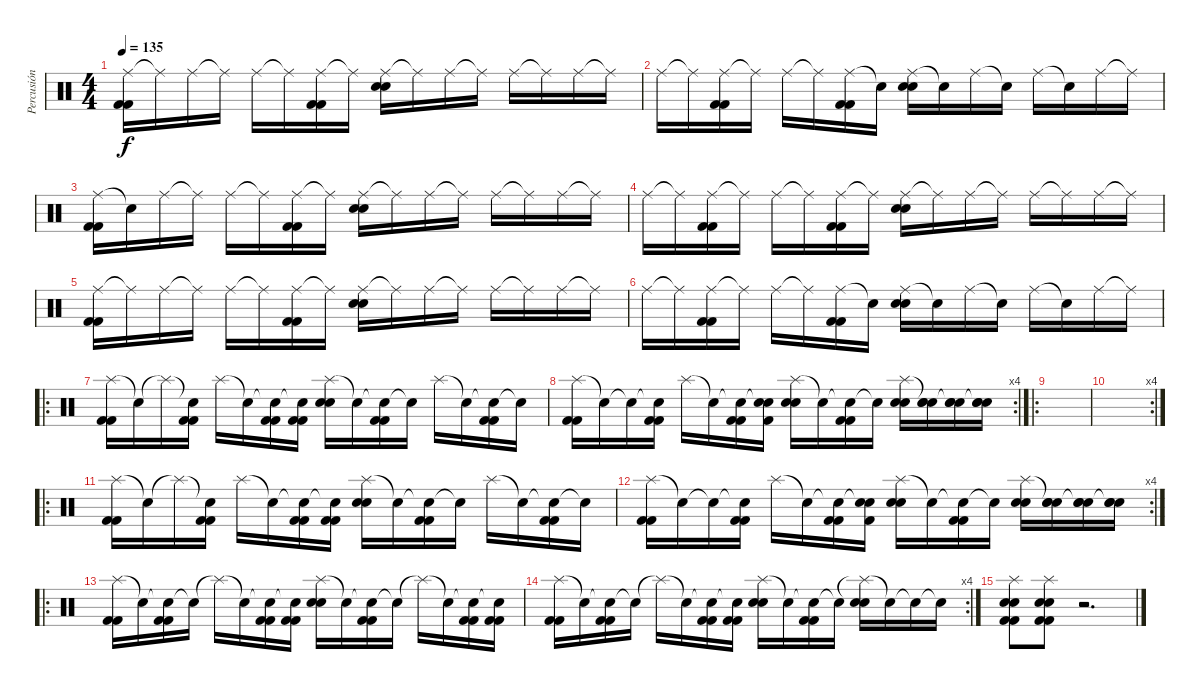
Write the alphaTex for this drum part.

\track ("Percusión" "Percusión") {instrument percussion}
\staff {score}
\articulation defaults
\ts (4 4)
\tempo 135
\clef neutral
\ks c
("Ride (middle)" "Kick (hit) 2" "Kick (hit) 2").16{dy f} "Ride (middle)"{t}.16 "Ride (middle)".16 "Ride (middle)"{t}.16 "Ride (middle)".16 "Ride (middle)"{t}.16 ("Ride (middle)" "Kick (hit) 2" "Kick (hit) 2").16 "Ride (middle)"{t}.16 ("Ride (middle)" "Electric Snare (hit)" "Electric Snare (hit)").16 "Ride (middle)"{t}.16 "Ride (middle)".16 "Ride (middle)"{t}.16 "Ride (middle)".16 "Ride (middle)"{t}.16 "Ride (middle)".16 "Ride (middle)"{t}.16 |
"Ride (middle)".16 "Ride (middle)"{t}.16 ("Ride (middle)" "Kick (hit) 2" "Kick (hit) 2").16 "Ride (middle)"{t}.16 "Ride (middle)".16 "Ride (middle)"{t}.16 ("Ride (middle)" "Kick (hit) 2" "Kick (hit) 2").16 "Snare (hit)"{t}.16 ("Ride (middle)" "Electric Snare (hit)" "Electric Snare (hit)").16 "Snare (hit)"{t}.16 "Ride (middle)".16 "Snare (hit)"{t}.16 "Ride (middle)".16 "Snare (hit)"{t}.16 "Ride (middle)".16 "Ride (middle)"{t}.16 |
("Ride (middle)" "Kick (hit) 2" "Kick (hit) 2").16 "Snare (hit)"{t}.16 "Ride (middle)".16 "Ride (middle)"{t}.16 "Ride (middle)".16 "Ride (middle)"{t}.16 ("Ride (middle)" "Kick (hit) 2" "Kick (hit) 2").16 "Ride (middle)"{t}.16 ("Ride (middle)" "Electric Snare (hit)" "Electric Snare (hit)").16 "Ride (middle)"{t}.16 "Ride (middle)".16 "Ride (middle)"{t}.16 "Ride (middle)".16 "Ride (middle)"{t}.16 "Ride (middle)".16 "Ride (middle)"{t}.16 |
"Ride (middle)".16 "Ride (middle)"{t}.16 ("Ride (middle)" "Kick (hit) 2" "Kick (hit) 2").16 "Ride (middle)"{t}.16 "Ride (middle)".16 "Ride (middle)"{t}.16 ("Ride (middle)" "Kick (hit) 2" "Kick (hit) 2").16 "Ride (middle)"{t}.16 ("Ride (middle)" "Electric Snare (hit)" "Electric Snare (hit)").16 "Ride (middle)"{t}.16 "Ride (middle)".16 "Ride (middle)"{t}.16 "Ride (middle)".16 "Ride (middle)"{t}.16 "Ride (middle)".16 "Ride (middle)"{t}.16 |
("Ride (middle)" "Kick (hit) 2" "Kick (hit) 2").16 "Ride (middle)"{t}.16 "Ride (middle)".16 "Ride (middle)"{t}.16 "Ride (middle)".16 "Ride (middle)"{t}.16 ("Ride (middle)" "Kick (hit) 2" "Kick (hit) 2").16 "Ride (middle)"{t}.16 ("Ride (middle)" "Electric Snare (hit)" "Electric Snare (hit)").16 "Ride (middle)"{t}.16 "Ride (middle)".16 "Ride (middle)"{t}.16 "Ride (middle)".16 "Ride (middle)"{t}.16 "Ride (middle)".16 "Ride (middle)"{t}.16 |
"Ride (middle)".16 "Ride (middle)"{t}.16 ("Ride (middle)" "Kick (hit) 2" "Kick (hit) 2").16 "Ride (middle)"{t}.16 "Ride (middle)".16 "Ride (middle)"{t}.16 ("Ride (middle)" "Kick (hit) 2" "Kick (hit) 2").16 "Snare (hit)"{t}.16 ("Ride (middle)" "Electric Snare (hit)" "Electric Snare (hit)").16 "Snare (hit)"{t}.16 "Ride (middle)".16 "Snare (hit)"{t}.16 "Ride (middle)".16 "Snare (hit)"{t}.16 "Ride (middle)".16 "Ride (middle)"{t}.16 |
\ro
("Splash (hit)" "Kick (hit) 2" "Kick (hit) 2").16 "Snare (hit)"{t}.16 "Splash (hit)"{t}.16 ("Snare (hit)"{t} "Kick (hit) 2" "Kick (hit) 2").16 "Splash (hit)".16 "Snare (hit)"{t}.16 ("Snare (hit)"{t} "Kick (hit) 2" "Kick (hit) 2").16 ("Snare (hit)"{t} "Kick (hit) 2" "Kick (hit) 2").16 ("Splash (hit)" "Electric Snare (hit)" "Electric Snare (hit)").16 "Snare (hit)"{t}.16 ("Snare (hit)"{t} "Kick (hit) 2" "Kick (hit) 2").16 "Snare (hit)"{t}.16 "Splash (hit)".16 "Snare (hit)"{t}.16 ("Snare (hit)"{t} "Kick (hit) 2" "Kick (hit) 2").16 "Snare (hit)"{t}.16 |
\rc 4
("Splash (hit)" "Kick (hit) 2" "Kick (hit) 2").16 "Snare (hit)"{t}.16 "Snare (hit)"{t}.16 ("Snare (hit)"{t} "Kick (hit) 2" "Kick (hit) 2").16 "Splash (hit)".16 "Snare (hit)"{t}.16 ("Snare (hit)"{t} "Kick (hit) 2" "Kick (hit) 2").16 ("Snare (hit)"{t} "Snare (hit)" "Kick (hit) 2").16 ("Splash (hit)" "Electric Snare (hit)" "Electric Snare (hit)").16 "Snare (hit)"{t}.16 ("Snare (hit)"{t} "Kick (hit) 2" "Kick (hit) 2").16 "Snare (hit)"{t}.16 ("Splash (hit)" "Electric Snare (hit)" "Electric Snare (hit)").16 ("Snare (hit)"{t} "Electric Snare (hit)" "Electric Snare (hit)").16 ("Snare (hit)"{t} "Electric Snare (hit)" "Electric Snare (hit)").16 ("Snare (hit)"{t} "Electric Snare (hit)" "Electric Snare (hit)").16 |
\ro
|
\rc 4
|
\ro
("Splash (hit)" "Kick (hit) 2" "Kick (hit) 2").16 "Snare (hit)"{t}.16 "Splash (hit)"{t}.16 ("Snare (hit)"{t} "Kick (hit) 2" "Kick (hit) 2").16 "Splash (hit)".16 "Snare (hit)"{t}.16 ("Snare (hit)"{t} "Kick (hit) 2" "Kick (hit) 2").16 ("Snare (hit)"{t} "Kick (hit) 2" "Kick (hit) 2").16 ("Splash (hit)" "Electric Snare (hit)" "Electric Snare (hit)").16 "Snare (hit)"{t}.16 ("Snare (hit)"{t} "Kick (hit) 2" "Kick (hit) 2").16 "Snare (hit)"{t}.16 "Splash (hit)".16 "Snare (hit)"{t}.16 ("Snare (hit)"{t} "Kick (hit) 2" "Kick (hit) 2").16 "Snare (hit)"{t}.16 |
\rc 4
("Splash (hit)" "Kick (hit) 2" "Kick (hit) 2").16 "Snare (hit)"{t}.16 "Snare (hit)"{t}.16 ("Snare (hit)"{t} "Kick (hit) 2" "Kick (hit) 2").16 "Splash (hit)".16 "Snare (hit)"{t}.16 ("Snare (hit)"{t} "Kick (hit) 2" "Kick (hit) 2").16 ("Snare (hit)"{t} "Snare (hit)" "Kick (hit) 2").16 ("Splash (hit)" "Electric Snare (hit)" "Electric Snare (hit)").16 "Snare (hit)"{t}.16 ("Snare (hit)"{t} "Kick (hit) 2" "Kick (hit) 2").16 "Snare (hit)"{t}.16 ("Splash (hit)" "Electric Snare (hit)" "Electric Snare (hit)").16 ("Snare (hit)"{t} "Electric Snare (hit)" "Electric Snare (hit)").16 ("Snare (hit)"{t} "Electric Snare (hit)" "Electric Snare (hit)").16 ("Snare (hit)"{t} "Electric Snare (hit)" "Electric Snare (hit)").16 |
\ro
("Splash (hit)" "Kick (hit) 2" "Kick (hit) 2").16 "Snare (hit)"{t}.16 ("Snare (hit)"{t} "Kick (hit) 2" "Kick (hit) 2").16 "Snare (hit)"{t}.16 "Splash (hit)"{t}.16 "Snare (hit)"{t}.16 ("Snare (hit)"{t} "Kick (hit) 2" "Kick (hit) 2").16 ("Snare (hit)"{t} "Kick (hit) 2" "Kick (hit) 2").16 ("Splash (hit)" "Electric Snare (hit)" "Electric Snare (hit)").16 "Snare (hit)"{t}.16 ("Snare (hit)"{t} "Kick (hit) 2" "Kick (hit) 2").16 "Snare (hit)"{t}.16 "Splash (hit)"{t}.16 "Snare (hit)"{t}.16 ("Snare (hit)"{t} "Kick (hit) 2" "Kick (hit) 2").16 ("Snare (hit)"{t} "Kick (hit) 2" "Kick (hit) 2").16 |
\rc 4
("Splash (hit)" "Kick (hit) 2" "Kick (hit) 2").16 "Snare (hit)"{t}.16 ("Snare (hit)"{t} "Kick (hit) 2" "Kick (hit) 2").16 "Snare (hit)"{t}.16 "Splash (hit)"{t}.16 "Snare (hit)"{t}.16 ("Snare (hit)"{t} "Kick (hit) 2" "Kick (hit) 2").16 ("Snare (hit)"{t} "Kick (hit) 2" "Kick (hit) 2").16 ("Splash (hit)" "Electric Snare (hit)" "Electric Snare (hit)").16 "Snare (hit)"{t}.16 ("Snare (hit)"{t} "Kick (hit) 2" "Kick (hit) 2").16 "Snare (hit)"{t}.16 ("Splash (hit)"{t} "Electric Snare (hit)" "Electric Snare (hit)").16 "Snare (hit)"{t}.16 "Snare (hit)"{t}.16 "Snare (hit)"{t}.16 |
("Splash (hit)" "Electric Snare (hit)" "Electric Snare (hit)" "Kick (hit) 2" "Kick (hit) 2").8 ("Splash (hit)" "Electric Snare (hit)" "Electric Snare (hit)" "Kick (hit) 2" "Kick (hit) 2").8 r.2{d}
